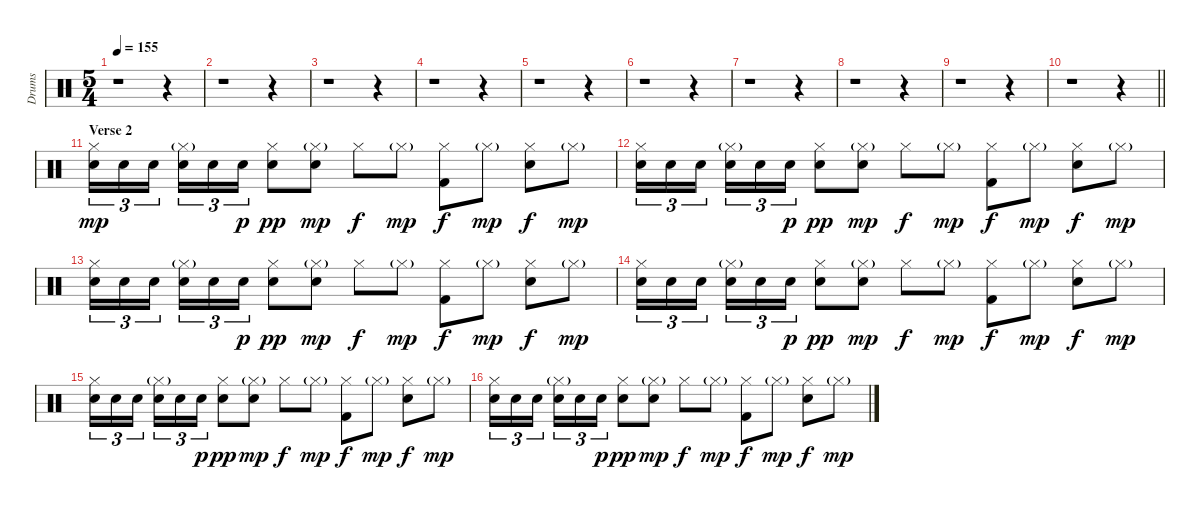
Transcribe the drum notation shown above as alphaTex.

\track ("Drums" "Drums") {instrument percussion}
\staff {score}
\articulation defaults
\ts (5 4)
\tempo 155
\clef neutral
\ks c
r.1{dy mp} r.4 |
r.1 r.4 |
r.1 r.4 |
r.1 r.4 |
r.1 r.4 |
r.1 r.4 |
r.1 r.4 |
r.1 r.4 |
r.1 r.4 |
\barLineRight lightlight
r.1 r.4 |
\section ("" "Verse 2")
("Hi-Hat (closed)" "Electric Snare (hit)").16{tu (3 2)} "Electric Snare (hit)".16{tu (3 2)} "Electric Snare (hit)".16{tu (3 2) beam splitsecondary} ("Hi-Hat (closed)"{g} "Electric Snare (hit)").16{tu (3 2)} "Electric Snare (hit)".16{tu (3 2)} "Electric Snare (hit)".16{tu (3 2) dy p} ("Hi-Hat (closed)" "Electric Snare (hit)").8{dy pp} ("Hi-Hat (closed)"{g} "Electric Snare (hit)").8{dy mp} "Hi-Hat (closed)".8{dy f} "Hi-Hat (closed)"{g}.8{dy mp} ("Hi-Hat (closed)" "Kick (hit) 2").8{dy f} "Hi-Hat (closed)"{g}.8{dy mp} ("Hi-Hat (closed)" "Electric Snare (hit)").8{dy f} "Hi-Hat (closed)"{g}.8{dy mp} |
("Hi-Hat (closed)" "Electric Snare (hit)").16{tu (3 2)} "Electric Snare (hit)".16{tu (3 2)} "Electric Snare (hit)".16{tu (3 2) beam splitsecondary} ("Hi-Hat (closed)"{g} "Electric Snare (hit)").16{tu (3 2)} "Electric Snare (hit)".16{tu (3 2)} "Electric Snare (hit)".16{tu (3 2) dy p} ("Hi-Hat (closed)" "Electric Snare (hit)").8{dy pp} ("Hi-Hat (closed)"{g} "Electric Snare (hit)").8{dy mp} "Hi-Hat (closed)".8{dy f} "Hi-Hat (closed)"{g}.8{dy mp} ("Hi-Hat (closed)" "Kick (hit) 2").8{dy f} "Hi-Hat (closed)"{g}.8{dy mp} ("Hi-Hat (closed)" "Electric Snare (hit)").8{dy f} "Hi-Hat (closed)"{g}.8{dy mp} |
("Hi-Hat (closed)" "Electric Snare (hit)").16{tu (3 2)} "Electric Snare (hit)".16{tu (3 2)} "Electric Snare (hit)".16{tu (3 2) beam splitsecondary} ("Hi-Hat (closed)"{g} "Electric Snare (hit)").16{tu (3 2)} "Electric Snare (hit)".16{tu (3 2)} "Electric Snare (hit)".16{tu (3 2) dy p} ("Hi-Hat (closed)" "Electric Snare (hit)").8{dy pp} ("Hi-Hat (closed)"{g} "Electric Snare (hit)").8{dy mp} "Hi-Hat (closed)".8{dy f} "Hi-Hat (closed)"{g}.8{dy mp} ("Hi-Hat (closed)" "Kick (hit) 2").8{dy f} "Hi-Hat (closed)"{g}.8{dy mp} ("Hi-Hat (closed)" "Electric Snare (hit)").8{dy f} "Hi-Hat (closed)"{g}.8{dy mp} |
("Hi-Hat (closed)" "Electric Snare (hit)").16{tu (3 2)} "Electric Snare (hit)".16{tu (3 2)} "Electric Snare (hit)".16{tu (3 2) beam splitsecondary} ("Hi-Hat (closed)"{g} "Electric Snare (hit)").16{tu (3 2)} "Electric Snare (hit)".16{tu (3 2)} "Electric Snare (hit)".16{tu (3 2) dy p} ("Hi-Hat (closed)" "Electric Snare (hit)").8{dy pp} ("Hi-Hat (closed)"{g} "Electric Snare (hit)").8{dy mp} "Hi-Hat (closed)".8{dy f} "Hi-Hat (closed)"{g}.8{dy mp} ("Hi-Hat (closed)" "Kick (hit) 2").8{dy f} "Hi-Hat (closed)"{g}.8{dy mp} ("Hi-Hat (closed)" "Electric Snare (hit)").8{dy f} "Hi-Hat (closed)"{g}.8{dy mp} |
("Hi-Hat (closed)" "Electric Snare (hit)").16{tu (3 2)} "Electric Snare (hit)".16{tu (3 2)} "Electric Snare (hit)".16{tu (3 2) beam splitsecondary} ("Hi-Hat (closed)"{g} "Electric Snare (hit)").16{tu (3 2)} "Electric Snare (hit)".16{tu (3 2)} "Electric Snare (hit)".16{tu (3 2) dy p} ("Hi-Hat (closed)" "Electric Snare (hit)").8{dy pp} ("Hi-Hat (closed)"{g} "Electric Snare (hit)").8{dy mp} "Hi-Hat (closed)".8{dy f} "Hi-Hat (closed)"{g}.8{dy mp} ("Hi-Hat (closed)" "Kick (hit) 2").8{dy f} "Hi-Hat (closed)"{g}.8{dy mp} ("Hi-Hat (closed)" "Electric Snare (hit)").8{dy f} "Hi-Hat (closed)"{g}.8{dy mp} |
("Hi-Hat (closed)" "Electric Snare (hit)").16{tu (3 2)} "Electric Snare (hit)".16{tu (3 2)} "Electric Snare (hit)".16{tu (3 2) beam splitsecondary} ("Hi-Hat (closed)"{g} "Electric Snare (hit)").16{tu (3 2)} "Electric Snare (hit)".16{tu (3 2)} "Electric Snare (hit)".16{tu (3 2) dy p} ("Hi-Hat (closed)" "Electric Snare (hit)").8{dy pp} ("Hi-Hat (closed)"{g} "Electric Snare (hit)").8{dy mp} "Hi-Hat (closed)".8{dy f} "Hi-Hat (closed)"{g}.8{dy mp} ("Hi-Hat (closed)" "Kick (hit) 2").8{dy f} "Hi-Hat (closed)"{g}.8{dy mp} ("Hi-Hat (closed)" "Electric Snare (hit)").8{dy f} "Hi-Hat (closed)"{g}.8{dy mp}
